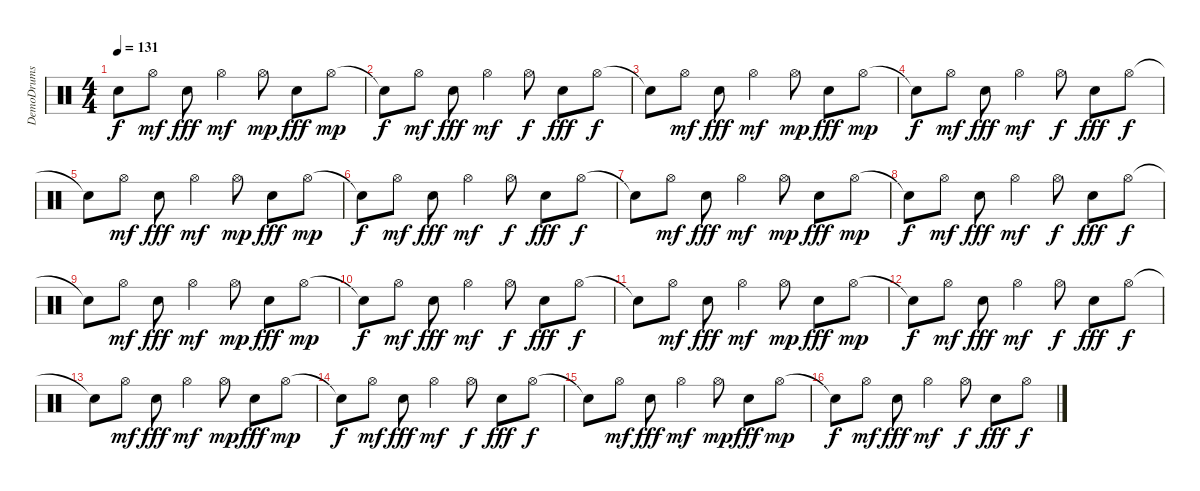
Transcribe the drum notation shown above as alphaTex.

\track ("DemoDrums" "DemoDrums") {instrument percussion}
\staff {score}
\articulation defaults
\ts (4 4)
\tempo 131
\clef neutral
\ks c "Snare (hit)"{t}.8{dy f} "Hi-Hat (open)".8{dy mf} "Electric Snare (hit)".8{dy fff} "Hi-Hat (open)".4{dy mf} "Hi-Hat (open)".8{dy mp} "Electric Snare (hit)".8{dy fff} "Hi-Hat (open)".8{dy mp}
|
"Snare (hit)"{t}.8{dy f} "Hi-Hat (open)".8{dy mf} "Electric Snare (hit)".8{dy fff} "Hi-Hat (open)".4{dy mf} "Hi-Hat (open)".8{dy f} "Electric Snare (hit)".8{dy fff} "Hi-Hat (open)".8{dy f} |
"Snare (hit)"{t}.8 "Hi-Hat (open)".8{dy mf} "Electric Snare (hit)".8{dy fff} "Hi-Hat (open)".4{dy mf} "Hi-Hat (open)".8{dy mp} "Electric Snare (hit)".8{dy fff} "Hi-Hat (open)".8{dy mp} |
"Snare (hit)"{t}.8{dy f} "Hi-Hat (open)".8{dy mf} "Electric Snare (hit)".8{dy fff} "Hi-Hat (open)".4{dy mf} "Hi-Hat (open)".8{dy f} "Electric Snare (hit)".8{dy fff} "Hi-Hat (open)".8{dy f} |
"Snare (hit)"{t}.8 "Hi-Hat (open)".8{dy mf} "Electric Snare (hit)".8{dy fff} "Hi-Hat (open)".4{dy mf} "Hi-Hat (open)".8{dy mp} "Electric Snare (hit)".8{dy fff} "Hi-Hat (open)".8{dy mp} |
"Snare (hit)"{t}.8{dy f} "Hi-Hat (open)".8{dy mf} "Electric Snare (hit)".8{dy fff} "Hi-Hat (open)".4{dy mf} "Hi-Hat (open)".8{dy f} "Electric Snare (hit)".8{dy fff} "Hi-Hat (open)".8{dy f} |
"Snare (hit)"{t}.8 "Hi-Hat (open)".8{dy mf} "Electric Snare (hit)".8{dy fff} "Hi-Hat (open)".4{dy mf} "Hi-Hat (open)".8{dy mp} "Electric Snare (hit)".8{dy fff} "Hi-Hat (open)".8{dy mp} |
"Snare (hit)"{t}.8{dy f} "Hi-Hat (open)".8{dy mf} "Electric Snare (hit)".8{dy fff} "Hi-Hat (open)".4{dy mf} "Hi-Hat (open)".8{dy f} "Electric Snare (hit)".8{dy fff} "Hi-Hat (open)".8{dy f} |
"Snare (hit)"{t}.8 "Hi-Hat (open)".8{dy mf} "Electric Snare (hit)".8{dy fff} "Hi-Hat (open)".4{dy mf} "Hi-Hat (open)".8{dy mp} "Electric Snare (hit)".8{dy fff} "Hi-Hat (open)".8{dy mp} |
"Snare (hit)"{t}.8{dy f} "Hi-Hat (open)".8{dy mf} "Electric Snare (hit)".8{dy fff} "Hi-Hat (open)".4{dy mf} "Hi-Hat (open)".8{dy f} "Electric Snare (hit)".8{dy fff} "Hi-Hat (open)".8{dy f} |
"Snare (hit)"{t}.8 "Hi-Hat (open)".8{dy mf} "Electric Snare (hit)".8{dy fff} "Hi-Hat (open)".4{dy mf} "Hi-Hat (open)".8{dy mp} "Electric Snare (hit)".8{dy fff} "Hi-Hat (open)".8{dy mp} |
"Snare (hit)"{t}.8{dy f} "Hi-Hat (open)".8{dy mf} "Electric Snare (hit)".8{dy fff} "Hi-Hat (open)".4{dy mf} "Hi-Hat (open)".8{dy f} "Electric Snare (hit)".8{dy fff} "Hi-Hat (open)".8{dy f} |
"Snare (hit)"{t}.8 "Hi-Hat (open)".8{dy mf} "Electric Snare (hit)".8{dy fff} "Hi-Hat (open)".4{dy mf} "Hi-Hat (open)".8{dy mp} "Electric Snare (hit)".8{dy fff} "Hi-Hat (open)".8{dy mp} |
"Snare (hit)"{t}.8{dy f} "Hi-Hat (open)".8{dy mf} "Electric Snare (hit)".8{dy fff} "Hi-Hat (open)".4{dy mf} "Hi-Hat (open)".8{dy f} "Electric Snare (hit)".8{dy fff} "Hi-Hat (open)".8{dy f} |
"Snare (hit)"{t}.8 "Hi-Hat (open)".8{dy mf} "Electric Snare (hit)".8{dy fff} "Hi-Hat (open)".4{dy mf} "Hi-Hat (open)".8{dy mp} "Electric Snare (hit)".8{dy fff} "Hi-Hat (open)".8{dy mp} |
"Snare (hit)"{t}.8{dy f} "Hi-Hat (open)".8{dy mf} "Electric Snare (hit)".8{dy fff} "Hi-Hat (open)".4{dy mf} "Hi-Hat (open)".8{dy f} "Electric Snare (hit)".8{dy fff} "Hi-Hat (open)".8{dy f}
